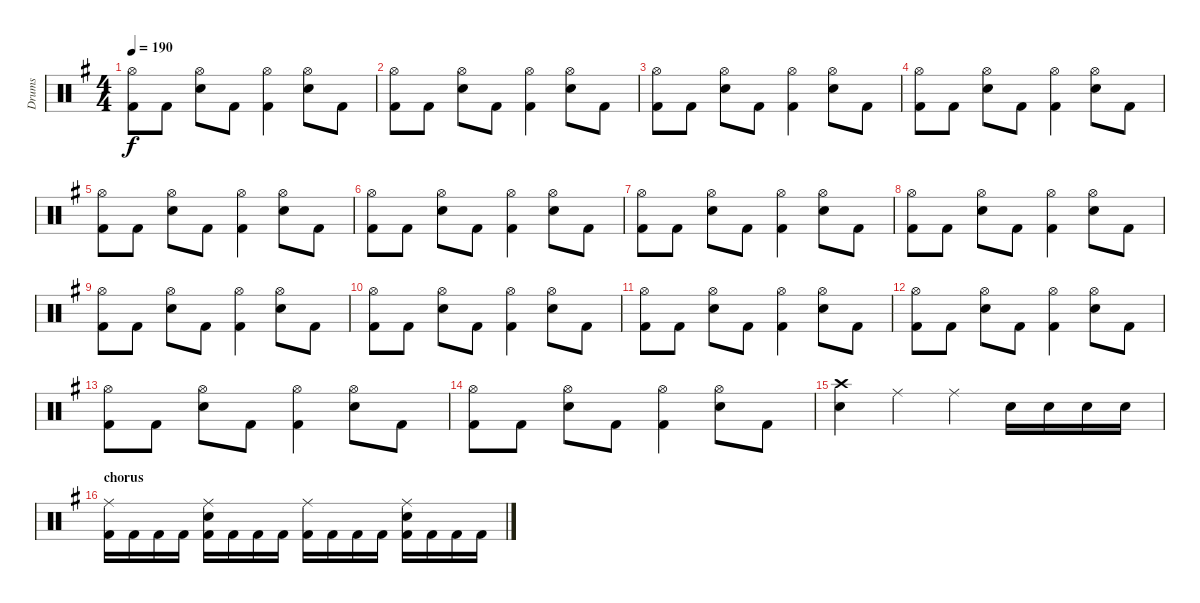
\track ("Drums" "Drums") {instrument percussion}
\staff {score}
\articulation defaults
\ts (4 4)
\tempo 190
\clef neutral
\ks eminor
("Hi-Hat (open)" "Kick (hit) 2").8{dy f} "Kick (hit) 2".8 ("Hi-Hat (open)" "Electric Snare (hit)").8 "Kick (hit) 2".8 ("Hi-Hat (open)" "Kick (hit) 2").4 ("Hi-Hat (open)" "Electric Snare (hit)").8 "Kick (hit) 2".8 |
("Hi-Hat (open)" "Kick (hit) 2").8 "Kick (hit) 2".8 ("Hi-Hat (open)" "Electric Snare (hit)").8 "Kick (hit) 2".8 ("Hi-Hat (open)" "Kick (hit) 2").4 ("Hi-Hat (open)" "Electric Snare (hit)").8 "Kick (hit) 2".8 |
("Hi-Hat (open)" "Kick (hit) 2").8 "Kick (hit) 2".8 ("Hi-Hat (open)" "Electric Snare (hit)").8 "Kick (hit) 2".8 ("Hi-Hat (open)" "Kick (hit) 2").4 ("Hi-Hat (open)" "Electric Snare (hit)").8 "Kick (hit) 2".8 |
("Hi-Hat (open)" "Kick (hit) 2").8 "Kick (hit) 2".8 ("Hi-Hat (open)" "Electric Snare (hit)").8 "Kick (hit) 2".8 ("Hi-Hat (open)" "Kick (hit) 2").4 ("Hi-Hat (open)" "Electric Snare (hit)").8 "Kick (hit) 2".8 |
("Hi-Hat (open)" "Kick (hit) 2").8 "Kick (hit) 2".8 ("Hi-Hat (open)" "Electric Snare (hit)").8 "Kick (hit) 2".8 ("Hi-Hat (open)" "Kick (hit) 2").4 ("Hi-Hat (open)" "Electric Snare (hit)").8 "Kick (hit) 2".8 |
("Hi-Hat (open)" "Kick (hit) 2").8 "Kick (hit) 2".8 ("Hi-Hat (open)" "Electric Snare (hit)").8 "Kick (hit) 2".8 ("Hi-Hat (open)" "Kick (hit) 2").4 ("Hi-Hat (open)" "Electric Snare (hit)").8 "Kick (hit) 2".8 |
("Hi-Hat (open)" "Kick (hit) 2").8 "Kick (hit) 2".8 ("Hi-Hat (open)" "Electric Snare (hit)").8 "Kick (hit) 2".8 ("Hi-Hat (open)" "Kick (hit) 2").4 ("Hi-Hat (open)" "Electric Snare (hit)").8 "Kick (hit) 2".8 |
("Hi-Hat (open)" "Kick (hit) 2").8 "Kick (hit) 2".8 ("Hi-Hat (open)" "Electric Snare (hit)").8 "Kick (hit) 2".8 ("Hi-Hat (open)" "Kick (hit) 2").4 ("Hi-Hat (open)" "Electric Snare (hit)").8 "Kick (hit) 2".8 |
("Hi-Hat (open)" "Kick (hit) 2").8 "Kick (hit) 2".8 ("Hi-Hat (open)" "Electric Snare (hit)").8 "Kick (hit) 2".8 ("Hi-Hat (open)" "Kick (hit) 2").4 ("Hi-Hat (open)" "Electric Snare (hit)").8 "Kick (hit) 2".8 |
("Hi-Hat (open)" "Kick (hit) 2").8 "Kick (hit) 2".8 ("Hi-Hat (open)" "Electric Snare (hit)").8 "Kick (hit) 2".8 ("Hi-Hat (open)" "Kick (hit) 2").4 ("Hi-Hat (open)" "Electric Snare (hit)").8 "Kick (hit) 2".8 |
("Hi-Hat (open)" "Kick (hit) 2").8 "Kick (hit) 2".8 ("Hi-Hat (open)" "Electric Snare (hit)").8 "Kick (hit) 2".8 ("Hi-Hat (open)" "Kick (hit) 2").4 ("Hi-Hat (open)" "Electric Snare (hit)").8 "Kick (hit) 2".8 |
("Hi-Hat (open)" "Kick (hit) 2").8 "Kick (hit) 2".8 ("Hi-Hat (open)" "Electric Snare (hit)").8 "Kick (hit) 2".8 ("Hi-Hat (open)" "Kick (hit) 2").4 ("Hi-Hat (open)" "Electric Snare (hit)").8 "Kick (hit) 2".8 |
("Hi-Hat (open)" "Kick (hit) 2").8 "Kick (hit) 2".8 ("Hi-Hat (open)" "Electric Snare (hit)").8 "Kick (hit) 2".8 ("Hi-Hat (open)" "Kick (hit) 2").4 ("Hi-Hat (open)" "Electric Snare (hit)").8 "Kick (hit) 2".8 |
("Hi-Hat (open)" "Kick (hit) 2").8 "Kick (hit) 2".8 ("Hi-Hat (open)" "Electric Snare (hit)").8 "Kick (hit) 2".8 ("Hi-Hat (open)" "Kick (hit) 2").4 ("Hi-Hat (open)" "Electric Snare (hit)").8 "Kick (hit) 2".8 |
("Crash high (hit)" "Electric Snare (hit)").4 "Ride (middle)".4 "Ride (middle)".4 "Electric Snare (hit)".16 "Electric Snare (hit)".16 "Electric Snare (hit)".16 "Electric Snare (hit)".16 |
\section ("" "chorus")
("Ride (middle)" "Kick (hit) 2").16 "Kick (hit) 2".16 "Kick (hit) 2".16 "Kick (hit) 2".16 ("Ride (middle)" "Electric Snare (hit)" "Kick (hit) 2").16 "Kick (hit) 2".16 "Kick (hit) 2".16 "Kick (hit) 2".16 ("Ride (middle)" "Kick (hit) 2").16 "Kick (hit) 2".16 "Kick (hit) 2".16 "Kick (hit) 2".16 ("Ride (middle)" "Electric Snare (hit)" "Kick (hit) 2").16 "Kick (hit) 2".16 "Kick (hit) 2".16 "Kick (hit) 2".16
